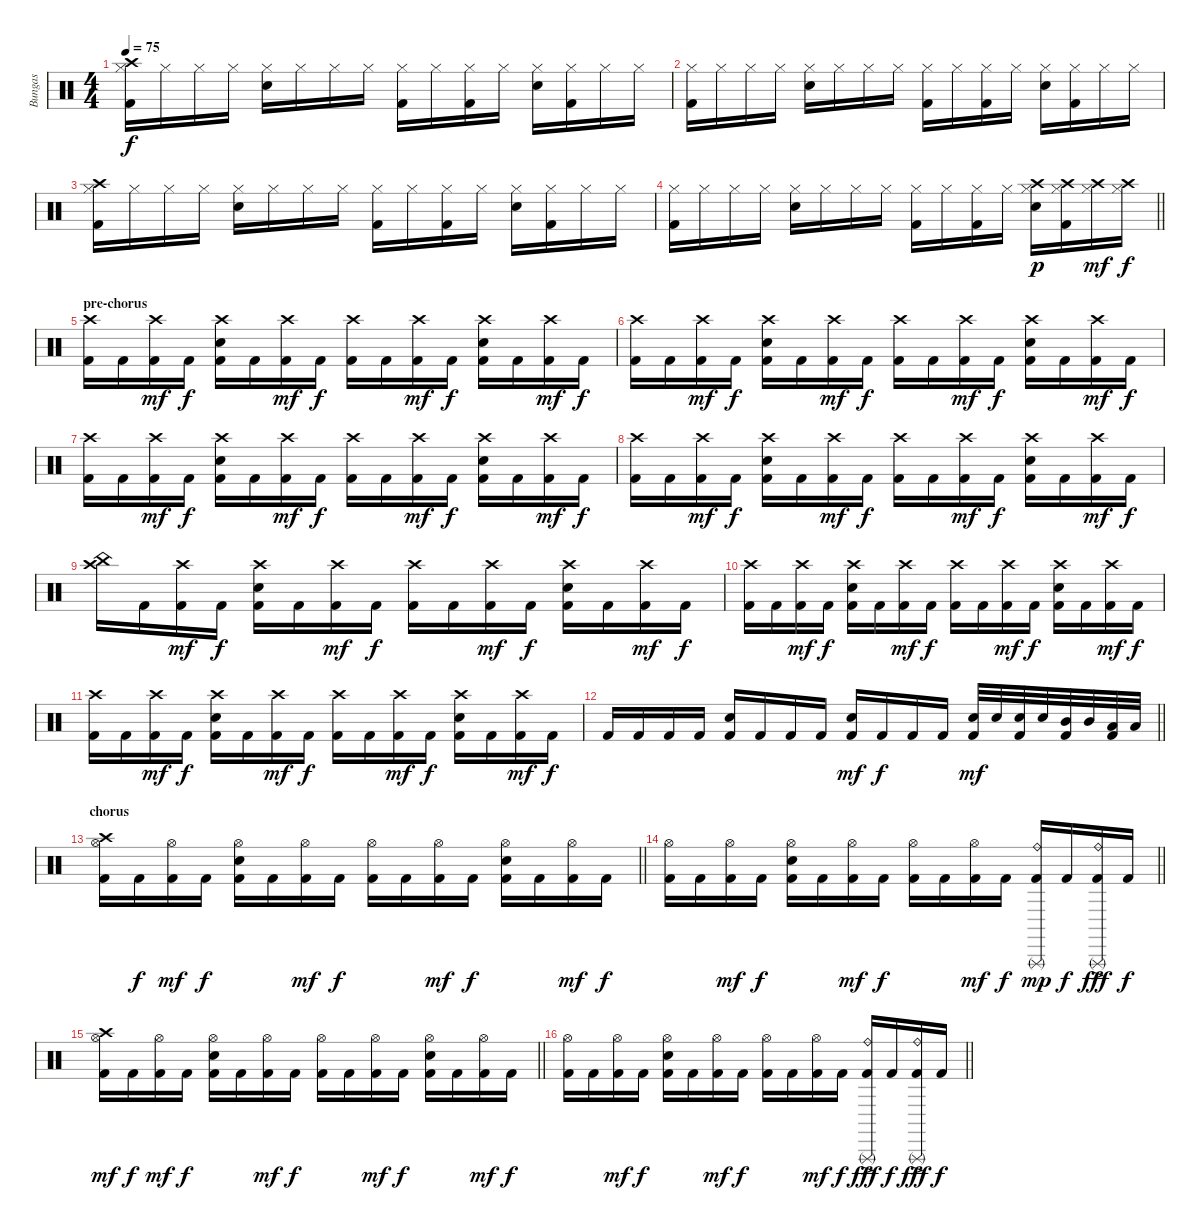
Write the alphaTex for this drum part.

\track ("Bungas" "Bungas") {instrument percussion}
\staff {score}
\articulation defaults
\ts (4 4)
\tempo 75
\clef neutral
\ks c
("Hi-Hat (closed)" "Crash high (hit)" "Kick (hit) 2").16{dy f} "Hi-Hat (closed)".16 "Hi-Hat (closed)".16 "Hi-Hat (closed)".16 ("Hi-Hat (closed)" "Electric Snare (hit)").16 "Hi-Hat (closed)".16 "Hi-Hat (closed)".16 "Hi-Hat (closed)".16 ("Hi-Hat (closed)" "Kick (hit) 2").16 "Hi-Hat (closed)".16 ("Hi-Hat (closed)" "Kick (hit) 2").16 "Hi-Hat (closed)".16 ("Hi-Hat (closed)" "Electric Snare (hit)").16 ("Hi-Hat (closed)" "Kick (hit) 2").16 "Hi-Hat (closed)".16 "Hi-Hat (closed)".16 |
("Hi-Hat (closed)" "Kick (hit) 2").16 "Hi-Hat (closed)".16 "Hi-Hat (closed)".16 "Hi-Hat (closed)".16 ("Hi-Hat (closed)" "Electric Snare (hit)").16 "Hi-Hat (closed)".16 "Hi-Hat (closed)".16 "Hi-Hat (closed)".16 ("Hi-Hat (closed)" "Kick (hit) 2").16 "Hi-Hat (closed)".16 ("Hi-Hat (closed)" "Kick (hit) 2").16 "Hi-Hat (closed)".16 ("Hi-Hat (closed)" "Electric Snare (hit)").16 ("Hi-Hat (closed)" "Kick (hit) 2").16 "Hi-Hat (closed)".16 "Hi-Hat (closed)".16 |
("Hi-Hat (closed)" "Crash high (hit)" "Kick (hit) 2").16 "Hi-Hat (closed)".16 "Hi-Hat (closed)".16 "Hi-Hat (closed)".16 ("Hi-Hat (closed)" "Electric Snare (hit)").16 "Hi-Hat (closed)".16 "Hi-Hat (closed)".16 "Hi-Hat (closed)".16 ("Hi-Hat (closed)" "Kick (hit) 2").16 "Hi-Hat (closed)".16 ("Hi-Hat (closed)" "Kick (hit) 2").16 "Hi-Hat (closed)".16 ("Hi-Hat (closed)" "Electric Snare (hit)").16 ("Hi-Hat (closed)" "Kick (hit) 2").16 "Hi-Hat (closed)".16 "Hi-Hat (closed)".16 |
\barLineRight lightlight
("Hi-Hat (closed)" "Kick (hit) 2").16 "Hi-Hat (closed)".16 "Hi-Hat (closed)".16 "Hi-Hat (closed)".16 ("Hi-Hat (closed)" "Electric Snare (hit)").16 "Hi-Hat (closed)".16 "Hi-Hat (closed)".16 "Hi-Hat (closed)".16 ("Hi-Hat (closed)" "Kick (hit) 2").16 "Hi-Hat (closed)".16 ("Hi-Hat (closed)" "Kick (hit) 2").16 "Hi-Hat (closed)".16 ("Hi-Hat (closed)" "Crash high (hit)" "Electric Snare (hit)").16{dy p} ("Hi-Hat (closed)" "Crash high (hit)" "Kick (hit) 2").16 ("Hi-Hat (closed)" "Crash high (hit)").16{dy mf} ("Hi-Hat (closed)" "Crash high (hit)").16{dy f} |
\section ("" "pre-chorus")
("Crash high (hit)" "Kick (hit) 2").16 "Kick (hit) 2".16 ("Crash high (hit)" "Kick (hit) 2").16{dy mf} "Kick (hit) 2".16{dy f} ("Crash high (hit)" "Electric Snare (hit)" "Kick (hit) 2").16 "Kick (hit) 2".16 ("Crash high (hit)" "Kick (hit) 2").16{dy mf} "Kick (hit) 2".16{dy f} ("Crash high (hit)" "Kick (hit) 2").16 "Kick (hit) 2".16 ("Crash high (hit)" "Kick (hit) 2").16{dy mf} "Kick (hit) 2".16{dy f} ("Crash high (hit)" "Electric Snare (hit)" "Kick (hit) 2").16 "Kick (hit) 2".16 ("Crash high (hit)" "Kick (hit) 2").16{dy mf} "Kick (hit) 2".16{dy f} |
("Crash high (hit)" "Kick (hit) 2").16 "Kick (hit) 2".16 ("Crash high (hit)" "Kick (hit) 2").16{dy mf} "Kick (hit) 2".16{dy f} ("Crash high (hit)" "Electric Snare (hit)" "Kick (hit) 2").16 "Kick (hit) 2".16 ("Crash high (hit)" "Kick (hit) 2").16{dy mf} "Kick (hit) 2".16{dy f} ("Crash high (hit)" "Kick (hit) 2").16 "Kick (hit) 2".16 ("Crash high (hit)" "Kick (hit) 2").16{dy mf} "Kick (hit) 2".16{dy f} ("Crash high (hit)" "Electric Snare (hit)" "Kick (hit) 2").16 "Kick (hit) 2".16 ("Crash high (hit)" "Kick (hit) 2").16{dy mf} "Kick (hit) 2".16{dy f} |
("Crash high (hit)" "Kick (hit) 2").16 "Kick (hit) 2".16 ("Crash high (hit)" "Kick (hit) 2").16{dy mf} "Kick (hit) 2".16{dy f} ("Crash high (hit)" "Electric Snare (hit)" "Kick (hit) 2").16 "Kick (hit) 2".16 ("Crash high (hit)" "Kick (hit) 2").16{dy mf} "Kick (hit) 2".16{dy f} ("Crash high (hit)" "Kick (hit) 2").16 "Kick (hit) 2".16 ("Crash high (hit)" "Kick (hit) 2").16{dy mf} "Kick (hit) 2".16{dy f} ("Crash high (hit)" "Electric Snare (hit)" "Kick (hit) 2").16 "Kick (hit) 2".16 ("Crash high (hit)" "Kick (hit) 2").16{dy mf} "Kick (hit) 2".16{dy f} |
("Crash high (hit)" "Kick (hit) 2").16 "Kick (hit) 2".16 ("Crash high (hit)" "Kick (hit) 2").16{dy mf} "Kick (hit) 2".16{dy f} ("Crash high (hit)" "Electric Snare (hit)" "Kick (hit) 2").16 "Kick (hit) 2".16 ("Crash high (hit)" "Kick (hit) 2").16{dy mf} "Kick (hit) 2".16{dy f} ("Crash high (hit)" "Kick (hit) 2").16 "Kick (hit) 2".16 ("Crash high (hit)" "Kick (hit) 2").16{dy mf} "Kick (hit) 2".16{dy f} ("Crash high (hit)" "Electric Snare (hit)" "Kick (hit) 2").16 "Kick (hit) 2".16 ("Crash high (hit)" "Kick (hit) 2").16{dy mf} "Kick (hit) 2".16{dy f} |
("Crash high (hit)" "China (hit)").16 "Kick (hit) 2".16 ("Crash high (hit)" "Kick (hit) 2").16{dy mf} "Kick (hit) 2".16{dy f} ("Crash high (hit)" "Electric Snare (hit)" "Kick (hit) 2").16 "Kick (hit) 2".16 ("Crash high (hit)" "Kick (hit) 2").16{dy mf} "Kick (hit) 2".16{dy f} ("Crash high (hit)" "Kick (hit) 2").16 "Kick (hit) 2".16 ("Crash high (hit)" "Kick (hit) 2").16{dy mf} "Kick (hit) 2".16{dy f} ("Crash high (hit)" "Electric Snare (hit)" "Kick (hit) 2").16 "Kick (hit) 2".16 ("Crash high (hit)" "Kick (hit) 2").16{dy mf} "Kick (hit) 2".16{dy f} |
("Crash high (hit)" "Kick (hit) 2").16 "Kick (hit) 2".16 ("Crash high (hit)" "Kick (hit) 2").16{dy mf} "Kick (hit) 2".16{dy f} ("Crash high (hit)" "Electric Snare (hit)" "Kick (hit) 2").16 "Kick (hit) 2".16 ("Crash high (hit)" "Kick (hit) 2").16{dy mf} "Kick (hit) 2".16{dy f} ("Crash high (hit)" "Kick (hit) 2").16 "Kick (hit) 2".16 ("Crash high (hit)" "Kick (hit) 2").16{dy mf} "Kick (hit) 2".16{dy f} ("Crash high (hit)" "Electric Snare (hit)" "Kick (hit) 2").16 "Kick (hit) 2".16 ("Crash high (hit)" "Kick (hit) 2").16{dy mf} "Kick (hit) 2".16{dy f} |
("Crash high (hit)" "Kick (hit) 2").16 "Kick (hit) 2".16 ("Crash high (hit)" "Kick (hit) 2").16{dy mf} "Kick (hit) 2".16{dy f} ("Crash high (hit)" "Electric Snare (hit)" "Kick (hit) 2").16 "Kick (hit) 2".16 ("Crash high (hit)" "Kick (hit) 2").16{dy mf} "Kick (hit) 2".16{dy f} ("Crash high (hit)" "Kick (hit) 2").16 "Kick (hit) 2".16 ("Crash high (hit)" "Kick (hit) 2").16{dy mf} "Kick (hit) 2".16{dy f} ("Crash high (hit)" "Electric Snare (hit)" "Kick (hit) 2").16 "Kick (hit) 2".16 ("Crash high (hit)" "Kick (hit) 2").16{dy mf} "Kick (hit) 2".16{dy f} |
\barLineRight lightlight "Kick (hit) 2".16 "Kick (hit) 2".16 "Kick (hit) 2".16 "Kick (hit) 2".16
("Electric Snare (hit)" "Kick (hit) 2").16 "Kick (hit) 2".16 "Kick (hit) 2".16 "Kick (hit) 2".16 ("Electric Snare (hit)" "Kick (hit) 2").16{dy mf} "Kick (hit) 2".16{dy f} "Kick (hit) 2".16 "Kick (hit) 2".16 ("Electric Snare (hit)" "Kick (hit) 2").32{dy mf} "Electric Snare (hit)".32 ("Electric Snare (hit)" "Kick (hit) 2").32 "Electric Snare (hit)".32 ("Mid Tom (hit)" "Kick (hit) 2").32 "Mid Tom (hit)".32 ("Low Tom (hit)" "Kick (hit) 2").32 "Low Tom (hit)".32 |
\section ("" "chorus")
\barLineRight lightlight
("Hi-Hat (open)" "Crash high (hit)" "Kick (hit) 2").16 "Kick (hit) 2".16{dy f} ("Hi-Hat (open)" "Kick (hit) 2").16{dy mf} "Kick (hit) 2".16{dy f} ("Hi-Hat (open)" "Electric Snare (hit)" "Kick (hit) 2").16 "Kick (hit) 2".16 ("Hi-Hat (open)" "Kick (hit) 2").16{dy mf} "Kick (hit) 2".16{dy f} ("Hi-Hat (open)" "Kick (hit) 2").16 "Kick (hit) 2".16 ("Hi-Hat (open)" "Kick (hit) 2").16{dy mf} "Kick (hit) 2".16{dy f} ("Hi-Hat (open)" "Electric Snare (hit)" "Kick (hit) 2").16 "Kick (hit) 2".16 ("Hi-Hat (open)" "Kick (hit) 2").16{dy mf} "Kick (hit) 2".16{dy f} |
\barLineRight lightlight
("Hi-Hat (open)" "Kick (hit) 2").16 "Kick (hit) 2".16 ("Hi-Hat (open)" "Kick (hit) 2").16{dy mf} "Kick (hit) 2".16{dy f} ("Hi-Hat (open)" "Electric Snare (hit)" "Kick (hit) 2").16 "Kick (hit) 2".16 ("Hi-Hat (open)" "Kick (hit) 2").16{dy mf} "Kick (hit) 2".16{dy f} ("Hi-Hat (open)" "Kick (hit) 2").16 "Kick (hit) 2".16 ("Hi-Hat (open)" "Kick (hit) 2").16{dy mf} "Kick (hit) 2".16{dy f} ("Ride (bell)" "Triangle (rnute)" "Kick (hit) 2").16{dy mp} "Kick (hit) 2".16{dy f} ("Ride (bell)"{ac} "Triangle (rnute)"{ac} "Kick (hit) 2"{ac}).16{dy fff} "Kick (hit) 2".16{dy f} |
\barLineRight lightlight
("Hi-Hat (open)" "Crash high (hit)" "Kick (hit) 2").16{dy mf} "Kick (hit) 2".16{dy f} ("Hi-Hat (open)" "Kick (hit) 2").16{dy mf} "Kick (hit) 2".16{dy f} ("Hi-Hat (open)" "Electric Snare (hit)" "Kick (hit) 2").16 "Kick (hit) 2".16 ("Hi-Hat (open)" "Kick (hit) 2").16{dy mf} "Kick (hit) 2".16{dy f} ("Hi-Hat (open)" "Kick (hit) 2").16 "Kick (hit) 2".16 ("Hi-Hat (open)" "Kick (hit) 2").16{dy mf} "Kick (hit) 2".16{dy f} ("Hi-Hat (open)" "Electric Snare (hit)" "Kick (hit) 2").16 "Kick (hit) 2".16 ("Hi-Hat (open)" "Kick (hit) 2").16{dy mf} "Kick (hit) 2".16{dy f} |
\barLineRight lightlight
("Hi-Hat (open)" "Kick (hit) 2").16 "Kick (hit) 2".16 ("Hi-Hat (open)" "Kick (hit) 2").16{dy mf} "Kick (hit) 2".16{dy f} ("Hi-Hat (open)" "Electric Snare (hit)" "Kick (hit) 2").16 "Kick (hit) 2".16 ("Hi-Hat (open)" "Kick (hit) 2").16{dy mf} "Kick (hit) 2".16{dy f} ("Hi-Hat (open)" "Kick (hit) 2").16 "Kick (hit) 2".16 ("Hi-Hat (open)" "Kick (hit) 2").16{dy mf} "Kick (hit) 2".16{dy f} ("Ride (bell)"{ac} "Triangle (rnute)"{ac} "Kick (hit) 2").16{dy fff} "Kick (hit) 2".16{dy f} ("Ride (bell)" "Triangle (rnute)"{ac} "Kick (hit) 2").16{dy fff} "Kick (hit) 2".16{dy f}
